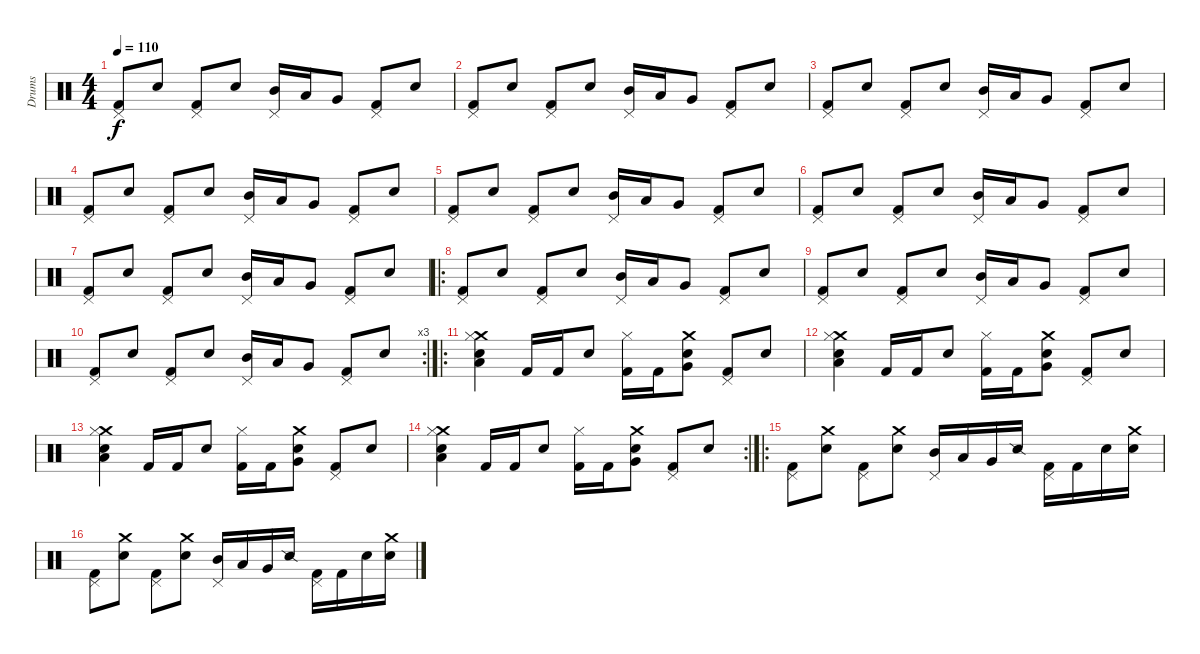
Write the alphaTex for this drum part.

\track ("Drums" "Drums") {instrument percussion}
\staff {score}
\articulation defaults
\ts (4 4)
\tempo 110
\clef neutral
\ks c
("Pedal Hi-Hat (hit)" "Kick (hit) 2").8{dy f} "Snare (hit) 2".8 ("Pedal Hi-Hat (hit)" "Kick (hit) 2").8 "Snare (hit) 2".8 ("Pedal Hi-Hat (hit)" "Mid Tom (hit)").16 "Low Tom (hit)".16 "Very Low Tom (hit)".8 ("Pedal Hi-Hat (hit)" "Kick (hit) 2").8 "Snare (hit) 2".8 |
("Pedal Hi-Hat (hit)" "Kick (hit) 2").8 "Snare (hit) 2".8 ("Pedal Hi-Hat (hit)" "Kick (hit) 2").8 "Snare (hit) 2".8 ("Pedal Hi-Hat (hit)" "Mid Tom (hit)").16 "Low Tom (hit)".16 "Very Low Tom (hit)".8 ("Pedal Hi-Hat (hit)" "Kick (hit) 2").8 "Snare (hit) 2".8 |
("Pedal Hi-Hat (hit)" "Kick (hit) 2").8 "Snare (hit) 2".8 ("Pedal Hi-Hat (hit)" "Kick (hit) 2").8 "Snare (hit) 2".8 ("Pedal Hi-Hat (hit)" "Mid Tom (hit)").16 "Low Tom (hit)".16 "Very Low Tom (hit)".8 ("Pedal Hi-Hat (hit)" "Kick (hit) 2").8 "Snare (hit) 2".8 |
("Pedal Hi-Hat (hit)" "Kick (hit) 2").8 "Snare (hit) 2".8 ("Pedal Hi-Hat (hit)" "Kick (hit) 2").8 "Snare (hit) 2".8 ("Pedal Hi-Hat (hit)" "Mid Tom (hit)").16 "Low Tom (hit)".16 "Very Low Tom (hit)".8 ("Pedal Hi-Hat (hit)" "Kick (hit) 2").8 "Snare (hit) 2".8 |
("Pedal Hi-Hat (hit)" "Kick (hit) 2").8 "Snare (hit) 2".8 ("Pedal Hi-Hat (hit)" "Kick (hit) 2").8 "Snare (hit) 2".8 ("Pedal Hi-Hat (hit)" "Mid Tom (hit)").16 "Low Tom (hit)".16 "Very Low Tom (hit)".8 ("Pedal Hi-Hat (hit)" "Kick (hit) 2").8 "Snare (hit) 2".8 |
("Pedal Hi-Hat (hit)" "Kick (hit) 2").8 "Snare (hit) 2".8 ("Pedal Hi-Hat (hit)" "Kick (hit) 2").8 "Snare (hit) 2".8 ("Pedal Hi-Hat (hit)" "Mid Tom (hit)").16 "Low Tom (hit)".16 "Very Low Tom (hit)".8 ("Pedal Hi-Hat (hit)" "Kick (hit) 2").8 "Snare (hit) 2".8 |
("Pedal Hi-Hat (hit)" "Kick (hit) 2").8 "Snare (hit) 2".8 ("Pedal Hi-Hat (hit)" "Kick (hit) 2").8 "Snare (hit) 2".8 ("Pedal Hi-Hat (hit)" "Mid Tom (hit)").16 "Low Tom (hit)".16 "Very Low Tom (hit)".8 ("Pedal Hi-Hat (hit)" "Kick (hit) 2").8 "Snare (hit) 2".8 |
\ro
("Pedal Hi-Hat (hit)" "Kick (hit) 2").8 "Snare (hit) 2".8 ("Pedal Hi-Hat (hit)" "Kick (hit) 2").8 "Snare (hit) 2".8 ("Pedal Hi-Hat (hit)" "Mid Tom (hit)").16 "Low Tom (hit)".16 "Very Low Tom (hit)".8 ("Pedal Hi-Hat (hit)" "Kick (hit) 2").8 "Snare (hit) 2".8 |
("Pedal Hi-Hat (hit)" "Kick (hit) 2").8 "Snare (hit) 2".8 ("Pedal Hi-Hat (hit)" "Kick (hit) 2").8 "Snare (hit) 2".8 ("Pedal Hi-Hat (hit)" "Mid Tom (hit)").16 "Low Tom (hit)".16 "Very Low Tom (hit)".8 ("Pedal Hi-Hat (hit)" "Kick (hit) 2").8 "Snare (hit) 2".8 |
\rc 3
("Pedal Hi-Hat (hit)" "Kick (hit) 2").8 "Snare (hit) 2".8 ("Pedal Hi-Hat (hit)" "Kick (hit) 2").8 "Snare (hit) 2".8 ("Pedal Hi-Hat (hit)" "Mid Tom (hit)").16 "Low Tom (hit)".16 "Very Low Tom (hit)".8 ("Pedal Hi-Hat (hit)" "Kick (hit) 2").8 "Snare (hit) 2".8 |
\ro
("Crash medium (hit)" "Snare (hit) 2" "Low Tom (hit)" "Hi-Hat (closed)").4 "Kick (hit) 2".16 "Kick (hit) 2".16 "Snare (hit) 2".8 ("Hi-Hat (closed)" "Kick (hit) 2").16 "Kick (hit) 2".16 ("Crash medium (hit)" "Snare (hit) 2" "Very Low Tom (hit)").8 ("Pedal Hi-Hat (hit)" "Kick (hit) 2").8 "Snare (hit) 2".8 |
("Crash medium (hit)" "Snare (hit) 2" "Low Tom (hit)" "Hi-Hat (closed)").4 "Kick (hit) 2".16 "Kick (hit) 2".16 "Snare (hit) 2".8 ("Hi-Hat (closed)" "Kick (hit) 2").16 "Kick (hit) 2".16 ("Crash medium (hit)" "Snare (hit) 2" "Very Low Tom (hit)").8 ("Pedal Hi-Hat (hit)" "Kick (hit) 2").8 "Snare (hit) 2".8 |
("Crash medium (hit)" "Snare (hit) 2" "Low Tom (hit)" "Hi-Hat (closed)").4 "Kick (hit) 2".16 "Kick (hit) 2".16 "Snare (hit) 2".8 ("Hi-Hat (closed)" "Kick (hit) 2").16 "Kick (hit) 2".16 ("Crash medium (hit)" "Snare (hit) 2" "Very Low Tom (hit)").8 ("Pedal Hi-Hat (hit)" "Kick (hit) 2").8 "Snare (hit) 2".8 |
\rc 2
("Crash medium (hit)" "Snare (hit) 2" "Low Tom (hit)" "Hi-Hat (closed)").4 "Kick (hit) 2".16 "Kick (hit) 2".16 "Snare (hit) 2".8 ("Hi-Hat (closed)" "Kick (hit) 2").16 "Kick (hit) 2".16 ("Crash medium (hit)" "Snare (hit) 2" "Very Low Tom (hit)").8 ("Pedal Hi-Hat (hit)" "Kick (hit) 2").8 "Snare (hit) 2".8 |
\ro
("Pedal Hi-Hat (hit)" "Kick (hit) 2").8 ("Crash medium (hit)" "Snare (hit) 2").8 ("Pedal Hi-Hat (hit)" "Kick (hit) 2").8 ("Crash medium (hit)" "Snare (hit) 2").8 ("Pedal Hi-Hat (hit)" "Mid Tom (hit)").16 "Low Tom (hit)".16 "Very Low Tom (hit)".16 "Snare (side stick) 2".16 ("Pedal Hi-Hat (hit)" "Kick (hit) 2").16 "Kick (hit) 2".16 "Snare (hit) 2".16 ("Crash medium (hit)" "Snare (hit) 2").16 |
("Pedal Hi-Hat (hit)" "Kick (hit) 2").8 ("Crash medium (hit)" "Snare (hit) 2").8 ("Pedal Hi-Hat (hit)" "Kick (hit) 2").8 ("Crash medium (hit)" "Snare (hit) 2").8 ("Pedal Hi-Hat (hit)" "Mid Tom (hit)").16 "Low Tom (hit)".16 "Very Low Tom (hit)".16 "Snare (side stick) 2".16 ("Pedal Hi-Hat (hit)" "Kick (hit) 2").16 "Kick (hit) 2".16 "Snare (hit) 2".16 ("Crash medium (hit)" "Snare (hit) 2").16
